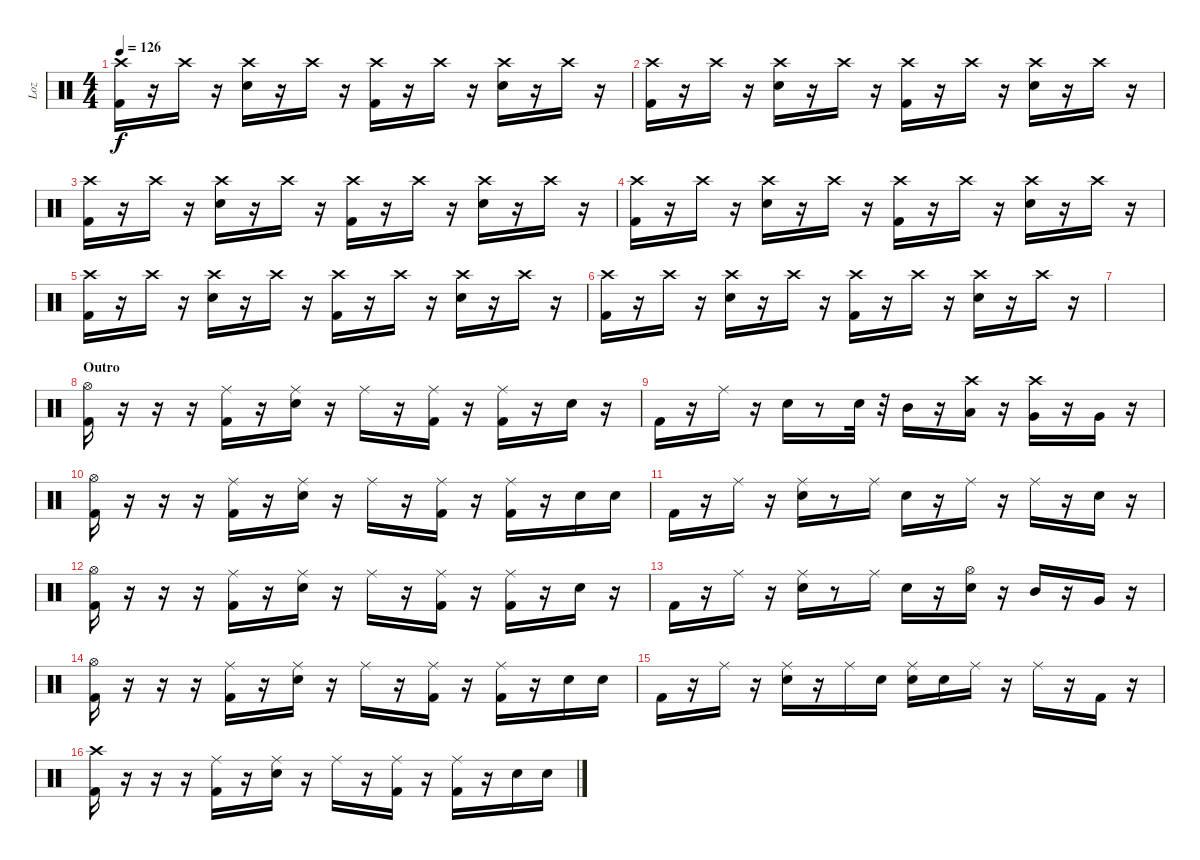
\track ("Loz" "Loz") {instrument percussion}
\staff {score}
\articulation defaults
\ts (4 4)
\tempo 126
\clef neutral
\ks c
("Crash high (hit)" "Kick (hit) 2").16{dy f} r.16 "Crash high (hit)".16 r.16 ("Crash high (hit)" "Snare (hit) 2").16 r.16 "Crash high (hit)".16 r.16 ("Crash high (hit)" "Kick (hit) 2").16 r.16 "Crash high (hit)".16 r.16 ("Crash high (hit)" "Snare (hit) 2").16 r.16 "Crash high (hit)".16 r.16 |
("Crash high (hit)" "Kick (hit) 2").16 r.16 "Crash high (hit)".16 r.16 ("Crash high (hit)" "Snare (hit) 2").16 r.16 "Crash high (hit)".16 r.16 ("Crash high (hit)" "Kick (hit) 2").16 r.16 "Crash high (hit)".16 r.16 ("Crash high (hit)" "Snare (hit) 2").16 r.16 "Crash high (hit)".16 r.16 |
("Crash high (hit)" "Kick (hit) 2").16 r.16 "Crash high (hit)".16 r.16 ("Crash high (hit)" "Snare (hit) 2").16 r.16 "Crash high (hit)".16 r.16 ("Crash high (hit)" "Kick (hit) 2").16 r.16 "Crash high (hit)".16 r.16 ("Crash high (hit)" "Snare (hit) 2").16 r.16 "Crash high (hit)".16 r.16 |
("Crash high (hit)" "Kick (hit) 2").16 r.16 "Crash high (hit)".16 r.16 ("Crash high (hit)" "Snare (hit) 2").16 r.16 "Crash high (hit)".16 r.16 ("Crash high (hit)" "Kick (hit) 2").16 r.16 "Crash high (hit)".16 r.16 ("Crash high (hit)" "Snare (hit) 2").16 r.16 "Crash high (hit)".16 r.16 |
("Crash high (hit)" "Kick (hit) 2").16 r.16 "Crash high (hit)".16 r.16 ("Crash high (hit)" "Snare (hit) 2").16 r.16 "Crash high (hit)".16 r.16 ("Crash high (hit)" "Kick (hit) 2").16 r.16 "Crash high (hit)".16 r.16 ("Crash high (hit)" "Snare (hit) 2").16 r.16 "Crash high (hit)".16 r.16 |
("Crash high (hit)" "Kick (hit) 2").16 r.16 "Crash high (hit)".16 r.16 ("Crash high (hit)" "Snare (hit) 2").16 r.16 "Crash high (hit)".16 r.16 ("Crash high (hit)" "Kick (hit) 2").16 r.16 "Crash high (hit)".16 r.16 ("Crash high (hit)" "Snare (hit) 2").16 r.16 "Crash high (hit)".16 r.16 |
|
\section ("" "Outro")
("Hi-Hat (open)" "Kick (hit) 2").16{volume 16} r.16 r.16 r.16 ("Ride (middle)" "Kick (hit) 2").16 r.16 ("Ride (middle)" "Snare (hit) 2").16 r.16 "Ride (middle)".16 r.16 ("Ride (middle)" "Kick (hit) 2").16 r.16 ("Ride (middle)" "Kick (hit) 2").16 r.16 "Snare (hit) 2".16 r.16 |
"Kick (hit) 2".16 r.16 "Ride (middle)".16 r.16 "Snare (hit) 2".16 r.8 "Snare (hit) 2".32 r.32 "Mid Tom (hit)".16 r.16 ("Crash high (hit)" "Low Tom (hit)").16 r.16 ("Crash high (hit)" "Very Low Tom (hit)").16 r.16 "Very Low Tom (hit)".16 r.16 |
("Hi-Hat (open)" "Kick (hit) 2").16 r.16 r.16 r.16 ("Ride (middle)" "Kick (hit) 2").16 r.16 ("Ride (middle)" "Snare (hit) 2").16 r.16 "Ride (middle)".16 r.16 ("Ride (middle)" "Kick (hit) 2").16 r.16 ("Ride (middle)" "Kick (hit) 2").16 r.16 "Snare (hit) 2".16 "Snare (hit) 2".16 |
"Kick (hit) 2".16 r.16 "Ride (middle)".16 r.16 ("Ride (middle)" "Snare (hit) 2").16 r.8 "Ride (middle)".16 "Snare (hit) 2".16 r.16 "Ride (middle)".16 r.16 "Ride (middle)".16 r.16 "Snare (hit) 2".16 r.16 |
("Hi-Hat (open)" "Kick (hit) 2").16 r.16 r.16 r.16 ("Ride (middle)" "Kick (hit) 2").16 r.16 ("Ride (middle)" "Snare (hit) 2").16 r.16 "Ride (middle)".16 r.16 ("Ride (middle)" "Kick (hit) 2").16 r.16 ("Ride (middle)" "Kick (hit) 2").16 r.16 "Snare (hit) 2".16 r.16 |
"Kick (hit) 2".16 r.16 "Ride (middle)".16 r.16 ("Ride (middle)" "Snare (hit) 2").16 r.8 "Ride (middle)".16 "Snare (hit) 2".16 r.16 ("Hi-Hat (open)" "Snare (hit) 2").16 r.16 "Mid Tom (hit)".16 r.16 "Very Low Tom (hit)".16 r.16 |
("Hi-Hat (open)" "Kick (hit) 2").16 r.16 r.16 r.16 ("Ride (middle)" "Kick (hit) 2").16 r.16 ("Ride (middle)" "Snare (hit) 2").16 r.16 "Ride (middle)".16 r.16 ("Ride (middle)" "Kick (hit) 2").16 r.16 ("Ride (middle)" "Kick (hit) 2").16 r.16 "Snare (hit) 2".16 "Snare (hit) 2".16 |
"Kick (hit) 2".16 r.16 "Ride (middle)".16 r.16 ("Ride (middle)" "Snare (hit) 2").16 r.16 "Ride (middle)".16 "Snare (hit) 2".16 ("Ride (middle)" "Snare (hit) 2").16 "Snare (hit) 2".16 "Ride (middle)".16 r.16 "Ride (middle)".16 r.16 "Kick (hit) 2".16 r.16 |
("Crash high (hit)" "Kick (hit) 2").16 r.16 r.16 r.16 ("Ride (middle)" "Kick (hit) 2").16 r.16 ("Ride (middle)" "Snare (hit) 2").16 r.16 "Ride (middle)".16 r.16 ("Ride (middle)" "Kick (hit) 2").16 r.16 ("Ride (middle)" "Kick (hit) 2").16 r.16 "Snare (hit) 2".16 "Snare (hit) 2".16
